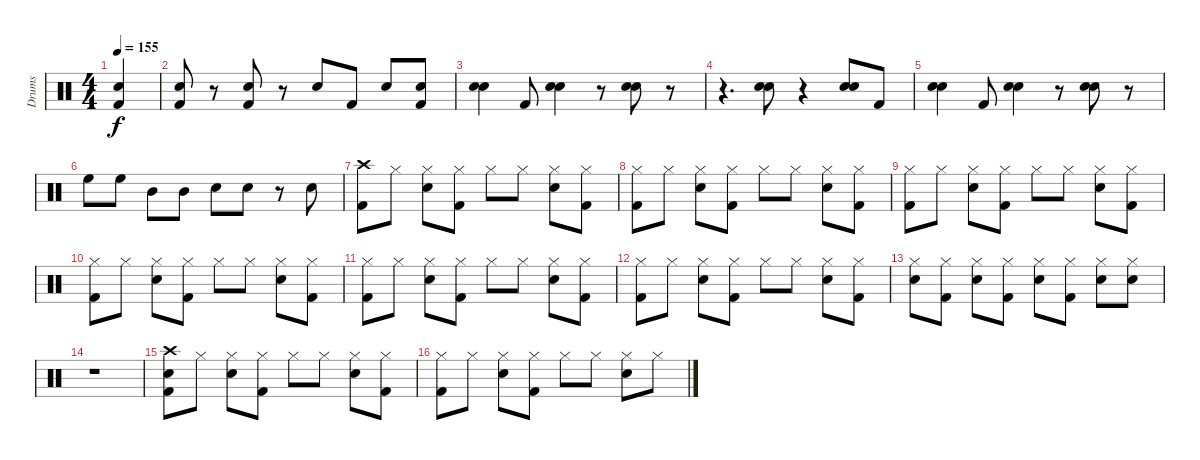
\track ("Drums" "Drums") {instrument percussion}
\staff {score}
\articulation defaults
\ts (4 4)
\tempo 155
\clef neutral
\ks c
("Snare (hit) 2" "Kick (hit) 2").4{dy f} |
("Snare (hit) 2" "Kick (hit) 2").8 r.8 ("Snare (hit) 2" "Kick (hit) 2").8 r.8 "Snare (hit) 2".8 "Kick (hit) 2".8 "Snare (hit) 2".8 ("Snare (hit) 2" "Kick (hit) 2").8 |
("Snare (hit) 2" "Hand Clap (hit)").4 "Kick (hit) 2".8 ("Snare (hit) 2" "Hand Clap (hit)").4 r.8 ("Snare (hit) 2" "Hand Clap (hit)").8 r.8 |
r.4{d} ("Snare (hit) 2" "Hand Clap (hit)").8 r.4 ("Snare (hit) 2" "Hand Clap (hit)").8 "Kick (hit) 2".8 |
("Snare (hit) 2" "Hand Clap (hit)").4 "Kick (hit) 2".8 ("Snare (hit) 2" "Hand Clap (hit)").4 r.8 ("Snare (hit) 2" "Hand Clap (hit)").8 r.8 |
"High Floor Tom (hit)".8 "High Floor Tom (hit)".8 "Mid Tom (hit)".8 "Mid Tom (hit)".8 "Snare (hit) 2".8 "Snare (hit) 2".8 r.8 "Snare (hit) 2".8 |
("Crash high (hit)" "Kick (hit) 2").8 "Hi-Hat (closed)".8 ("Hi-Hat (closed)" "Snare (hit) 2").8 ("Hi-Hat (closed)" "Kick (hit) 2").8 "Hi-Hat (closed)".8 "Hi-Hat (closed)".8 ("Hi-Hat (closed)" "Snare (hit) 2").8 ("Hi-Hat (closed)" "Kick (hit) 2").8 |
("Hi-Hat (closed)" "Kick (hit) 2").8 "Hi-Hat (closed)".8 ("Hi-Hat (closed)" "Snare (hit) 2").8 ("Hi-Hat (closed)" "Kick (hit) 2").8 "Hi-Hat (closed)".8 "Hi-Hat (closed)".8 ("Hi-Hat (closed)" "Snare (hit) 2").8 ("Hi-Hat (closed)" "Kick (hit) 2").8 |
("Hi-Hat (closed)" "Kick (hit) 2").8 "Hi-Hat (closed)".8 ("Hi-Hat (closed)" "Snare (hit) 2").8 ("Hi-Hat (closed)" "Kick (hit) 2").8 "Hi-Hat (closed)".8 "Hi-Hat (closed)".8 ("Hi-Hat (closed)" "Snare (hit) 2").8 ("Hi-Hat (closed)" "Kick (hit) 2").8 |
("Hi-Hat (closed)" "Kick (hit) 2").8 "Hi-Hat (closed)".8 ("Hi-Hat (closed)" "Snare (hit) 2").8 ("Hi-Hat (closed)" "Kick (hit) 2").8 "Hi-Hat (closed)".8 "Hi-Hat (closed)".8 ("Hi-Hat (closed)" "Snare (hit) 2").8 ("Hi-Hat (closed)" "Kick (hit) 2").8 |
("Hi-Hat (closed)" "Kick (hit) 2").8 "Hi-Hat (closed)".8 ("Hi-Hat (closed)" "Snare (hit) 2").8 ("Hi-Hat (closed)" "Kick (hit) 2").8 "Hi-Hat (closed)".8 "Hi-Hat (closed)".8 ("Hi-Hat (closed)" "Snare (hit) 2").8 ("Hi-Hat (closed)" "Kick (hit) 2").8 |
("Hi-Hat (closed)" "Kick (hit) 2").8 "Hi-Hat (closed)".8 ("Hi-Hat (closed)" "Snare (hit) 2").8 ("Hi-Hat (closed)" "Kick (hit) 2").8 "Hi-Hat (closed)".8 "Hi-Hat (closed)".8 ("Hi-Hat (closed)" "Snare (hit) 2").8 ("Hi-Hat (closed)" "Kick (hit) 2").8 |
("Hi-Hat (closed)" "Snare (hit) 2").8 ("Hi-Hat (closed)" "Kick (hit) 2").8 ("Hi-Hat (closed)" "Snare (hit) 2").8 ("Hi-Hat (closed)" "Kick (hit) 2").8 ("Hi-Hat (closed)" "Snare (hit) 2").8 ("Hi-Hat (closed)" "Kick (hit) 2").8 ("Hi-Hat (closed)" "Snare (hit) 2").8 ("Hi-Hat (closed)" "Snare (hit) 2").8 |
r.1 |
("Snare (hit)" "Kick (hit) 2" "Crash high (hit)").8 "Hi-Hat (closed)".8 ("Hi-Hat (closed)" "Snare (hit) 2").8 ("Hi-Hat (closed)" "Kick (hit) 2").8 "Hi-Hat (closed)".8 "Hi-Hat (closed)".8 ("Hi-Hat (closed)" "Snare (hit) 2").8 ("Hi-Hat (closed)" "Kick (hit) 2").8 |
("Hi-Hat (closed)" "Kick (hit) 2").8 "Hi-Hat (closed)".8 ("Hi-Hat (closed)" "Snare (hit) 2").8 ("Hi-Hat (closed)" "Kick (hit) 2").8 "Hi-Hat (closed)".8 "Hi-Hat (closed)".8 ("Hi-Hat (closed)" "Snare (hit) 2").8 "Hi-Hat (closed)".8
